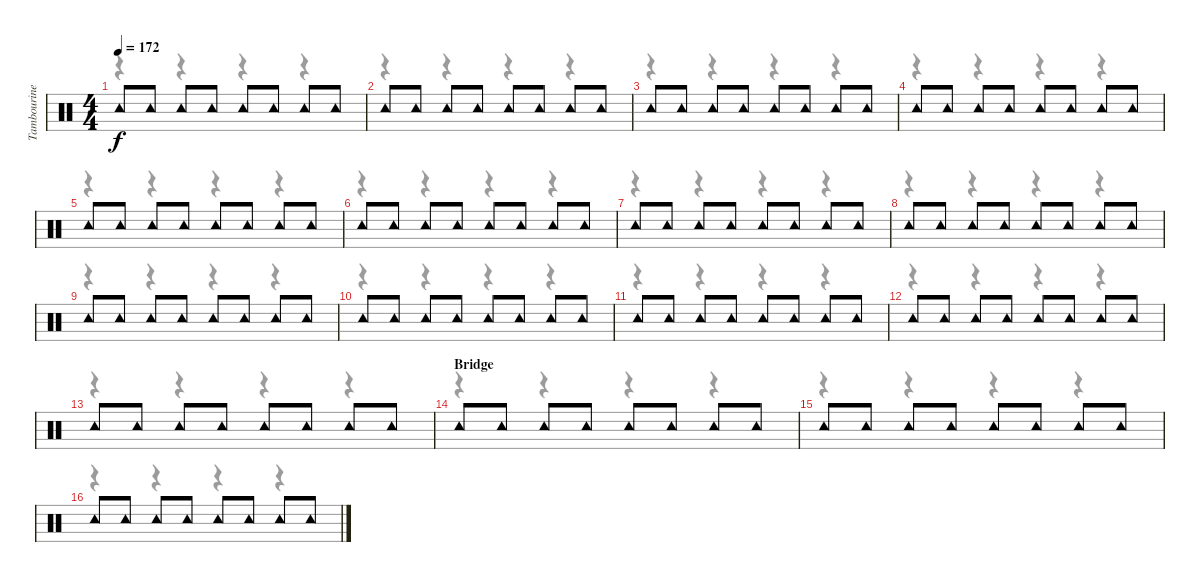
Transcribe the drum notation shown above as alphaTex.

\track ("Tambourine" "Tambourine") {instrument percussion}
\staff {score}
\articulation defaults
\voice
\ts (4 4)
\tempo 172
\clef neutral
\ks c "Tambourine (hit)".8{dy f} "Tambourine (hit)".8 "Tambourine (hit)".8 "Tambourine (hit)".8 "Tambourine (hit)".8 "Tambourine (hit)".8 "Tambourine (hit)".8 "Tambourine (hit)".8
|
"Tambourine (hit)".8 "Tambourine (hit)".8 "Tambourine (hit)".8 "Tambourine (hit)".8 "Tambourine (hit)".8 "Tambourine (hit)".8 "Tambourine (hit)".8 "Tambourine (hit)".8 |
"Tambourine (hit)".8 "Tambourine (hit)".8 "Tambourine (hit)".8 "Tambourine (hit)".8 "Tambourine (hit)".8 "Tambourine (hit)".8 "Tambourine (hit)".8 "Tambourine (hit)".8 |
"Tambourine (hit)".8 "Tambourine (hit)".8 "Tambourine (hit)".8 "Tambourine (hit)".8 "Tambourine (hit)".8 "Tambourine (hit)".8 "Tambourine (hit)".8 "Tambourine (hit)".8 |
"Tambourine (hit)".8 "Tambourine (hit)".8 "Tambourine (hit)".8 "Tambourine (hit)".8 "Tambourine (hit)".8 "Tambourine (hit)".8 "Tambourine (hit)".8 "Tambourine (hit)".8 |
"Tambourine (hit)".8 "Tambourine (hit)".8 "Tambourine (hit)".8 "Tambourine (hit)".8 "Tambourine (hit)".8 "Tambourine (hit)".8 "Tambourine (hit)".8 "Tambourine (hit)".8 |
"Tambourine (hit)".8 "Tambourine (hit)".8 "Tambourine (hit)".8 "Tambourine (hit)".8 "Tambourine (hit)".8 "Tambourine (hit)".8 "Tambourine (hit)".8 "Tambourine (hit)".8 |
"Tambourine (hit)".8 "Tambourine (hit)".8 "Tambourine (hit)".8 "Tambourine (hit)".8 "Tambourine (hit)".8 "Tambourine (hit)".8 "Tambourine (hit)".8 "Tambourine (hit)".8 |
"Tambourine (hit)".8 "Tambourine (hit)".8 "Tambourine (hit)".8 "Tambourine (hit)".8 "Tambourine (hit)".8 "Tambourine (hit)".8 "Tambourine (hit)".8 "Tambourine (hit)".8 |
"Tambourine (hit)".8 "Tambourine (hit)".8 "Tambourine (hit)".8 "Tambourine (hit)".8 "Tambourine (hit)".8 "Tambourine (hit)".8 "Tambourine (hit)".8 "Tambourine (hit)".8 |
"Tambourine (hit)".8 "Tambourine (hit)".8 "Tambourine (hit)".8 "Tambourine (hit)".8 "Tambourine (hit)".8 "Tambourine (hit)".8 "Tambourine (hit)".8 "Tambourine (hit)".8 |
"Tambourine (hit)".8 "Tambourine (hit)".8 "Tambourine (hit)".8 "Tambourine (hit)".8 "Tambourine (hit)".8 "Tambourine (hit)".8 "Tambourine (hit)".8 "Tambourine (hit)".8 |
"Tambourine (hit)".8 "Tambourine (hit)".8 "Tambourine (hit)".8 "Tambourine (hit)".8 "Tambourine (hit)".8 "Tambourine (hit)".8 "Tambourine (hit)".8 "Tambourine (hit)".8 |
\section ("" "Bridge")
"Tambourine (hit)".8 "Tambourine (hit)".8 "Tambourine (hit)".8 "Tambourine (hit)".8 "Tambourine (hit)".8 "Tambourine (hit)".8 "Tambourine (hit)".8 "Tambourine (hit)".8 |
"Tambourine (hit)".8 "Tambourine (hit)".8 "Tambourine (hit)".8 "Tambourine (hit)".8 "Tambourine (hit)".8 "Tambourine (hit)".8 "Tambourine (hit)".8 "Tambourine (hit)".8 |
"Tambourine (hit)".8 "Tambourine (hit)".8 "Tambourine (hit)".8 "Tambourine (hit)".8 "Tambourine (hit)".8 "Tambourine (hit)".8 "Tambourine (hit)".8 "Tambourine (hit)".8
\voice
\clef neutral
\ottava regular
\simile none
\ks c
r.4{dy f} r.4 r.4 r.4 |
r.4 r.4 r.4 r.4 |
r.4 r.4 r.4 r.4 |
r.4 r.4 r.4 r.4 |
r.4 r.4 r.4 r.4 |
r.4 r.4 r.4 r.4 |
r.4 r.4 r.4 r.4 |
r.4 r.4 r.4 r.4 |
r.4 r.4 r.4 r.4 |
r.4 r.4 r.4 r.4 |
r.4 r.4 r.4 r.4 |
r.4 r.4 r.4 r.4 |
r.4 r.4 r.4 r.4 |
r.4 r.4 r.4 r.4 |
r.4 r.4 r.4 r.4 |
r.4 r.4 r.4 r.4
